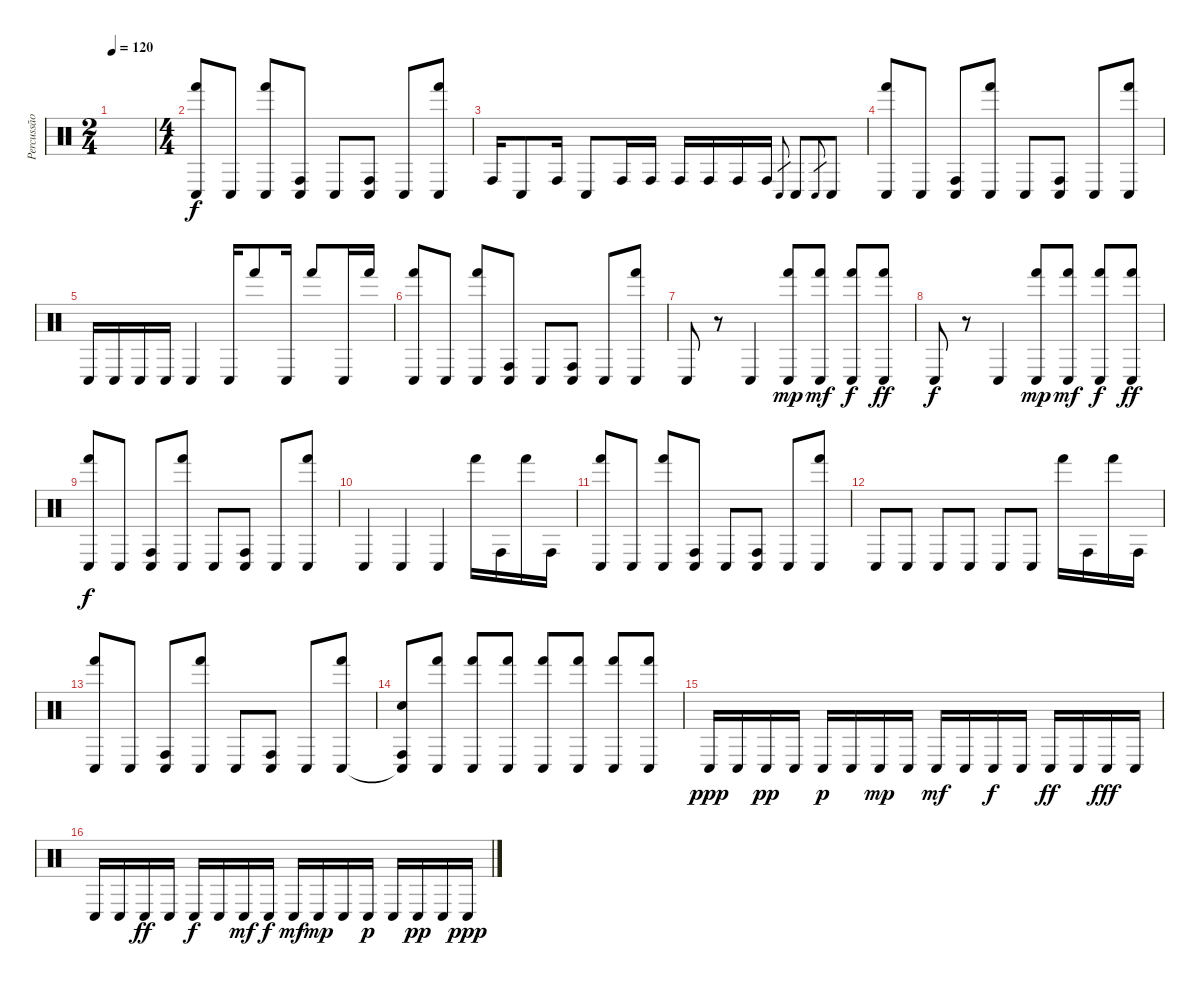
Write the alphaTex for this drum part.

\track ("Percussão" "Percussão") {instrument percussion}
\staff {score}
\articulation defaults
\ts (2 4)
\tempo 120
\clef neutral
\ks c
|
\ts (4 4)
("Conga low (hit)" "Hand (hit)").8 "Conga low (hit)".8 ("Conga low (hit)" "Hand (hit)").8 ("Conga low (hit)" "Conga high (hit)").8 "Conga low (hit)".8 ("Conga low (hit)" "Conga high (hit)").8 "Conga low (hit)".8 ("Conga low (hit)" "Hand (hit)").8 |
"Conga high (hit)".16 "Conga low (hit)".8 "Conga high (hit)".16 "Conga low (hit)".8 "Conga high (hit)".16 "Conga high (hit)".16 "Conga high (hit)".16 "Conga high (hit)".16 "Conga high (hit)".16 "Conga high (hit)".16 "Conga low (hit)".8{gr} "Conga low (hit)".8 "Conga low (hit)".8{gr} "Conga low (hit)".8 |
("Conga low (hit)" "Hand (hit)").8 "Conga low (hit)".8 ("Conga low (hit)" "Conga high (hit)").8 ("Conga low (hit)" "Hand (hit)").8 "Conga low (hit)".8 ("Conga low (hit)" "Conga high (hit)").8 "Conga low (hit)".8 ("Conga low (hit)" "Hand (hit)").8 |
"Conga low (hit)".16 "Conga low (hit)".16 "Conga low (hit)".16 "Conga low (hit)".16 "Conga low (hit)".4 "Conga low (hit)".16 "Hand (hit)".8 "Conga low (hit)".16 "Hand (hit)".8 "Conga low (hit)".16 "Hand (hit)".16 |
("Conga low (hit)" "Hand (hit)").8 "Conga low (hit)".8 ("Conga low (hit)" "Hand (hit)").8 ("Conga low (hit)" "Conga high (hit)").8 "Conga low (hit)".8 ("Conga low (hit)" "Conga high (hit)").8 "Conga low (hit)".8 ("Conga low (hit)" "Hand (hit)").8 |
"Conga low (hit)".8 r.8 "Conga low (hit)".4 ("Conga low (hit)" "Hand (hit)").8{dy mp} ("Conga low (hit)" "Hand (hit)").8{dy mf} ("Conga low (hit)" "Hand (hit)").8{dy f} ("Conga low (hit)" "Hand (hit)").8{dy ff} |
"Conga low (hit)".8{dy f} r.8 "Conga low (hit)".4 ("Conga low (hit)" "Hand (hit)").8{dy mp} ("Conga low (hit)" "Hand (hit)").8{dy mf} ("Conga low (hit)" "Hand (hit)").8{dy f} ("Conga low (hit)" "Hand (hit)").8{dy ff} |
("Conga low (hit)" "Hand (hit)").8{dy f} "Conga low (hit)".8 ("Conga low (hit)" "Conga high (hit)").8 ("Conga low (hit)" "Hand (hit)").8 "Conga low (hit)".8 ("Conga low (hit)" "Conga high (hit)").8 "Conga low (hit)".8 ("Conga low (hit)" "Hand (hit)").8 |
"Conga low (hit)".4 "Conga low (hit)".4 "Conga low (hit)".4 "Hand (hit)".16 "Conga high (hit)".16 "Hand (hit)".16 "Conga high (hit)".16 |
("Conga low (hit)" "Hand (hit)").8 "Conga low (hit)".8 ("Conga low (hit)" "Hand (hit)").8 ("Conga low (hit)" "Conga high (hit)").8 "Conga low (hit)".8 ("Conga low (hit)" "Conga high (hit)").8 "Conga low (hit)".8 ("Conga low (hit)" "Hand (hit)").8 |
"Conga low (hit)".8 "Conga low (hit)".8 "Conga low (hit)".8 "Conga low (hit)".8 "Conga low (hit)".8 "Conga low (hit)".8 "Hand (hit)".16 "Conga high (hit)".16 "Hand (hit)".16 "Conga high (hit)".16 |
("Conga low (hit)" "Hand (hit)").8 "Conga low (hit)".8 ("Conga low (hit)" "Conga high (hit)").8 ("Conga low (hit)" "Hand (hit)").8 "Conga low (hit)".8 ("Conga low (hit)" "Conga high (hit)").8 "Conga low (hit)".8 ("Conga low (hit)" "Hand (hit)").8 |
("Conga low (hit)"{t} "Conga high (hit)" "Snare (hit)").8 ("Conga low (hit)" "Hand (hit)").8 ("Conga low (hit)" "Hand (hit)").8 ("Conga low (hit)" "Hand (hit)").8 ("Conga low (hit)" "Hand (hit)").8 ("Conga low (hit)" "Hand (hit)").8 ("Conga low (hit)" "Hand (hit)").8 ("Conga low (hit)" "Hand (hit)").8 |
"Conga low (hit)".16{dy ppp} "Conga low (hit)".16 "Conga low (hit)".16{dy pp} "Conga low (hit)".16 "Conga low (hit)".16{dy p} "Conga low (hit)".16 "Conga low (hit)".16{dy mp} "Conga low (hit)".16 "Conga low (hit)".16{dy mf} "Conga low (hit)".16 "Conga low (hit)".16{dy f} "Conga low (hit)".16 "Conga low (hit)".16{dy ff} "Conga low (hit)".16 "Conga low (hit)".16{dy fff} "Conga low (hit)".16 |
"Conga low (hit)".16 "Conga low (hit)".16 "Conga low (hit)".16{dy ff} "Conga low (hit)".16 "Conga low (hit)".16{dy f} "Conga low (hit)".16 "Conga low (hit)".16{dy mf} "Conga low (hit)".16{dy f} "Conga low (hit)".16{dy mf} "Conga low (hit)".16{dy mp} "Conga low (hit)".16 "Conga low (hit)".16{dy p} "Conga low (hit)".16 "Conga low (hit)".16{dy pp} "Conga low (hit)".16 "Conga low (hit)".16{dy ppp}
